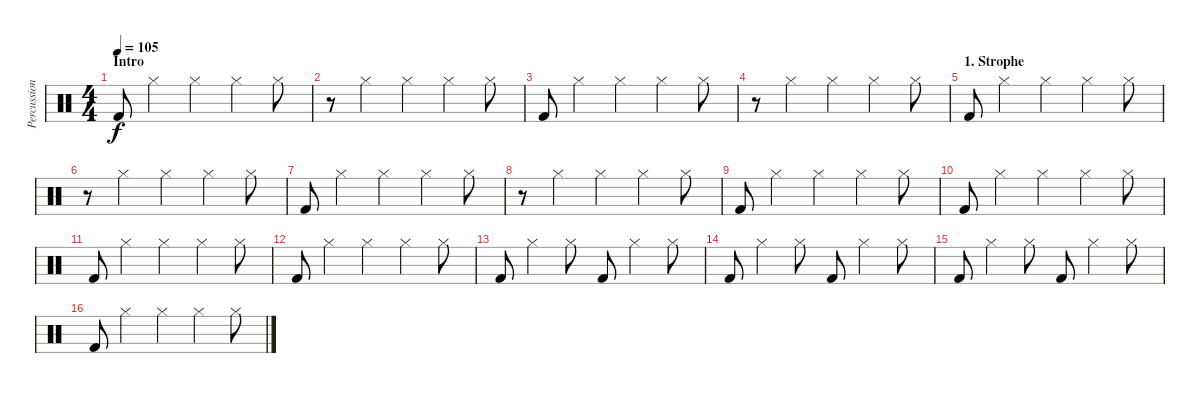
\track ("Percussion" "Percussion") {instrument percussion}
\staff {score}
\articulation defaults
\ts (4 4)
\section ("" "Intro")
\tempo 105
\clef neutral
\ks c "Kick (hit) 2".8{dy f} "Hi-Hat (closed)".4 "Hi-Hat (closed)".4 "Hi-Hat (closed)".4 "Hi-Hat (closed)".8
|
r.8 "Hi-Hat (closed)".4 "Hi-Hat (closed)".4 "Hi-Hat (closed)".4 "Hi-Hat (closed)".8 |
"Kick (hit) 2".8 "Hi-Hat (closed)".4 "Hi-Hat (closed)".4 "Hi-Hat (closed)".4 "Hi-Hat (closed)".8 |
r.8 "Hi-Hat (closed)".4 "Hi-Hat (closed)".4 "Hi-Hat (closed)".4 "Hi-Hat (closed)".8 |
\section ("" "1. Strophe")
"Kick (hit) 2".8 "Hi-Hat (closed)".4 "Hi-Hat (closed)".4 "Hi-Hat (closed)".4 "Hi-Hat (closed)".8 |
r.8 "Hi-Hat (closed)".4 "Hi-Hat (closed)".4 "Hi-Hat (closed)".4 "Hi-Hat (closed)".8 |
"Kick (hit) 2".8 "Hi-Hat (closed)".4 "Hi-Hat (closed)".4 "Hi-Hat (closed)".4 "Hi-Hat (closed)".8 |
r.8 "Hi-Hat (closed)".4 "Hi-Hat (closed)".4 "Hi-Hat (closed)".4 "Hi-Hat (closed)".8 |
"Kick (hit) 2".8 "Hi-Hat (closed)".4 "Hi-Hat (closed)".4 "Hi-Hat (closed)".4 "Hi-Hat (closed)".8 |
"Kick (hit) 2".8 "Hi-Hat (closed)".4 "Hi-Hat (closed)".4 "Hi-Hat (closed)".4 "Hi-Hat (closed)".8 |
"Kick (hit) 2".8 "Hi-Hat (closed)".4 "Hi-Hat (closed)".4 "Hi-Hat (closed)".4 "Hi-Hat (closed)".8 |
"Kick (hit) 2".8 "Hi-Hat (closed)".4 "Hi-Hat (closed)".4 "Hi-Hat (closed)".4 "Hi-Hat (closed)".8 |
"Kick (hit) 2".8 "Hi-Hat (closed)".4 "Hi-Hat (closed)".8 "Kick (hit) 2".8 "Hi-Hat (closed)".4 "Hi-Hat (closed)".8 |
"Kick (hit) 2".8 "Hi-Hat (closed)".4 "Hi-Hat (closed)".8 "Kick (hit) 2".8 "Hi-Hat (closed)".4 "Hi-Hat (closed)".8 |
"Kick (hit) 2".8 "Hi-Hat (closed)".4 "Hi-Hat (closed)".8 "Kick (hit) 2".8 "Hi-Hat (closed)".4 "Hi-Hat (closed)".8 |
"Kick (hit) 2".8 "Hi-Hat (closed)".4 "Hi-Hat (closed)".4 "Hi-Hat (closed)".4 "Hi-Hat (closed)".8
